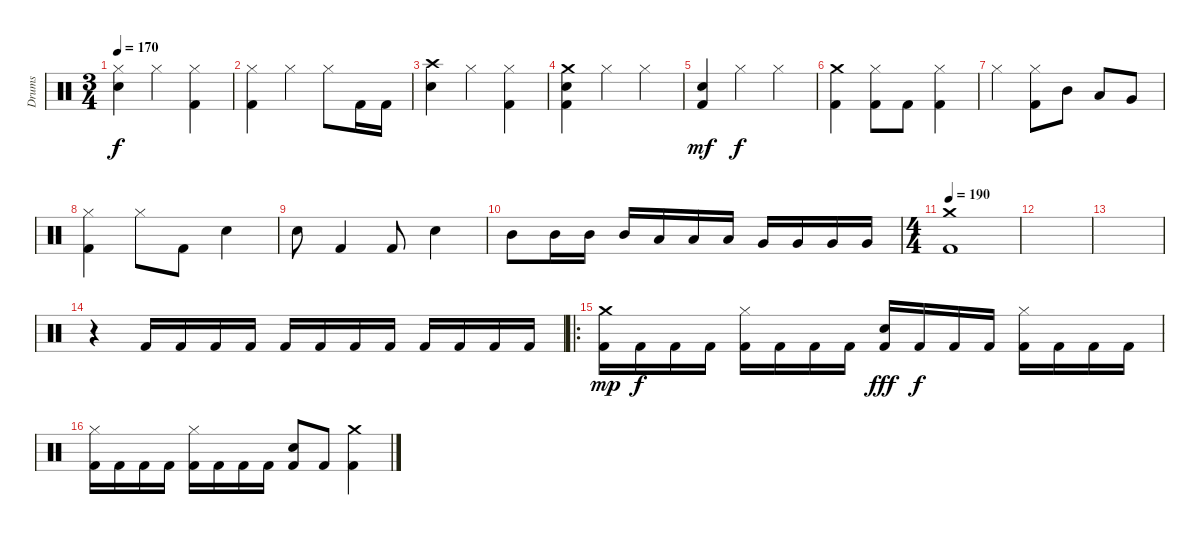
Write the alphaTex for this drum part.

\track ("Drums" "Drums") {instrument percussion}
\staff {score}
\articulation defaults
\ts (3 4)
\tempo 170
\clef neutral
\ks c
("Hi-Hat (closed)" "Electric Snare (hit)").4{dy f} "Hi-Hat (closed)".4 ("Hi-Hat (closed)" "Kick (hit) 2").4 |
("Hi-Hat (closed)" "Kick (hit) 2").4 "Hi-Hat (closed)".4 "Hi-Hat (closed)".8 "Kick (hit) 2".16 "Kick (hit) 2".16 |
("Crash high (hit)" "Electric Snare (hit)").4 "Hi-Hat (closed)".4 ("Hi-Hat (closed)" "Kick (hit) 2").4 |
("Crash medium (hit)" "Electric Snare (hit)" "Kick (hit) 2").4 "Hi-Hat (closed)".4 "Hi-Hat (closed)".4 |
("Electric Snare (hit)" "Kick (hit) 2").4{dy mf} "Hi-Hat (closed)".4{dy f} "Hi-Hat (closed)".4 |
("Crash medium (hit)" "Kick (hit) 2").4 ("Hi-Hat (closed)" "Kick (hit) 2").8 "Kick (hit) 2".8 ("Hi-Hat (closed)" "Kick (hit) 2").4 |
"Hi-Hat (closed)".4 ("Hi-Hat (closed)" "Kick (hit) 2").8 "Mid Tom (hit)".8 "Low Tom (hit)".8 "Very Low Tom (hit)".8 |
("Hi-Hat (closed)" "Kick (hit) 2").4 "Hi-Hat (closed)".8 "Kick (hit) 2".8 "Electric Snare (hit)".4 |
"Electric Snare (hit)".8 "Kick (hit) 2".4 "Kick (hit) 2".8 "Electric Snare (hit)".4 |
"Mid Tom (hit)".8 "Mid Tom (hit)".16 "Mid Tom (hit)".16 "Mid Tom (hit)".16 "Low Tom (hit)".16 "Low Tom (hit)".16 "Low Tom (hit)".16 "Very Low Tom (hit)".16 "Very Low Tom (hit)".16 "Very Low Tom (hit)".16 "Very Low Tom (hit)".16 |
\ts (4 4)
\tempo 190
("Crash medium (hit)" "Kick (hit) 2").1 |
|
|
r.4 "Kick (hit) 2".16 "Kick (hit) 2".16 "Kick (hit) 2".16 "Kick (hit) 2".16 "Kick (hit) 2".16 "Kick (hit) 2".16 "Kick (hit) 2".16 "Kick (hit) 2".16 "Kick (hit) 2".16 "Kick (hit) 2".16 "Kick (hit) 2".16 "Kick (hit) 2".16 |
\ro
("Crash medium (hit)" "Kick (hit) 2").16{dy mp} "Kick (hit) 2".16{dy f} "Kick (hit) 2".16 "Kick (hit) 2".16 ("Hi-Hat (closed)" "Kick (hit) 2").16 "Kick (hit) 2".16 "Kick (hit) 2".16 "Kick (hit) 2".16 ("Electric Snare (hit)" "Kick (hit) 2").16{dy fff} "Kick (hit) 2".16{dy f} "Kick (hit) 2".16 "Kick (hit) 2".16 ("Hi-Hat (closed)" "Kick (hit) 2").16 "Kick (hit) 2".16 "Kick (hit) 2".16 "Kick (hit) 2".16 |
("Hi-Hat (closed)" "Kick (hit) 2").16 "Kick (hit) 2".16 "Kick (hit) 2".16 "Kick (hit) 2".16 ("Hi-Hat (closed)" "Kick (hit) 2").16 "Kick (hit) 2".16 "Kick (hit) 2".16 "Kick (hit) 2".16 ("Electric Snare (hit)" "Kick (hit) 2").8 "Kick (hit) 2".8 ("Crash medium (hit)" "Kick (hit) 2").4
